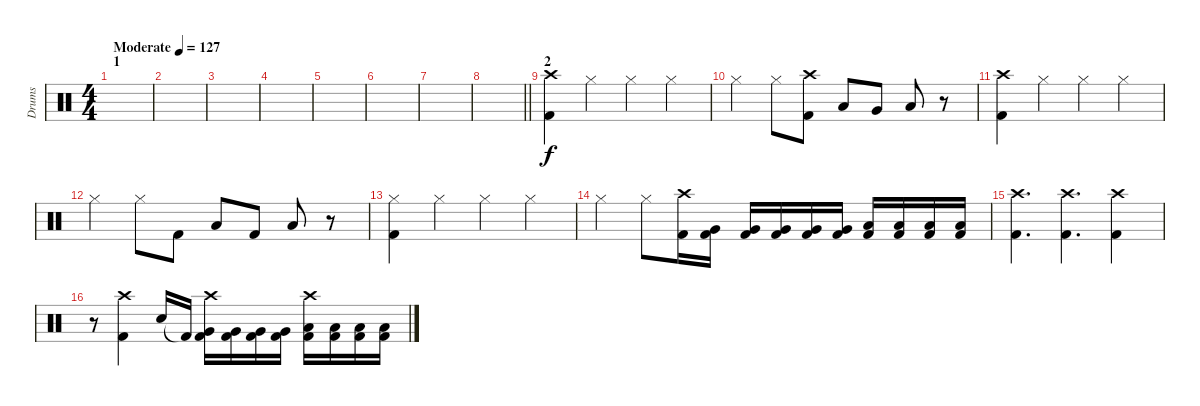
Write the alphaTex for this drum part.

\track ("Drums" "Drums") {instrument percussion}
\staff {score}
\articulation defaults
\ts (4 4)
\section ("" "1")
\tempo (127 "Moderate")
\clef neutral
\ks c
|
|
|
|
|
|
|
\barLineRight lightlight
|
\section ("" "2")
("Crash high (hit)" "Kick (hit) 2").4 "Hi-Hat (closed)".4 "Hi-Hat (closed)".4 "Hi-Hat (closed)".4 |
"Hi-Hat (closed)".4 "Hi-Hat (closed)".8 ("Crash high (hit)" "Kick (hit) 2").8 "Low Tom (hit)".8 "Very Low Tom (hit)".8 "Low Floor Tom (hit)".8 r.8 |
("Crash high (hit)" "Kick (hit) 2").4 "Hi-Hat (closed)".4 "Hi-Hat (closed)".4 "Hi-Hat (closed)".4 |
"Hi-Hat (closed)".4 "Hi-Hat (closed)".8 "Kick (hit) 2".8 "Low Tom (hit)".8 "Kick (hit) 2".8 "Low Tom (hit)".8 r.8 |
("Hi-Hat (closed)" "Kick (hit) 2").4 "Hi-Hat (closed)".4 "Hi-Hat (closed)".4 "Hi-Hat (closed)".4 |
"Hi-Hat (closed)".4 "Hi-Hat (closed)".8 ("Crash high (hit)" "Kick (hit) 2").16 ("Very Low Tom (hit)" "Kick (hit) 2").16 ("Very Low Tom (hit)" "Kick (hit) 2").16 ("Very Low Tom (hit)" "Kick (hit) 2").16 ("Very Low Tom (hit)" "Kick (hit) 2").16 ("Very Low Tom (hit)" "Kick (hit) 2").16 ("Low Floor Tom (hit)" "Kick (hit) 2").16 ("Low Floor Tom (hit)" "Kick (hit) 2").16 ("Low Floor Tom (hit)" "Kick (hit) 2").16 ("Low Floor Tom (hit)" "Kick (hit) 2").16 |
("Crash high (hit)" "Kick (hit) 2").4{d} ("Crash high (hit)" "Kick (hit) 2").4{d} ("Crash high (hit)" "Kick (hit) 2").4 |
r.8 ("Crash high (hit)" "Kick (hit) 2").4 "Snare (hit) 2".16 "Kick (hit) 2"{t}.16 ("Very Low Tom (hit)" "Kick (hit) 2" "Crash high (hit)").16 ("Very Low Tom (hit)" "Kick (hit) 2").16 ("Very Low Tom (hit)" "Kick (hit) 2").16 ("Very Low Tom (hit)" "Kick (hit) 2").16 ("Low Floor Tom (hit)" "Kick (hit) 2" "Crash high (hit)").16 ("Low Floor Tom (hit)" "Kick (hit) 2").16 ("Low Floor Tom (hit)" "Kick (hit) 2").16 ("Low Floor Tom (hit)" "Kick (hit) 2").16
